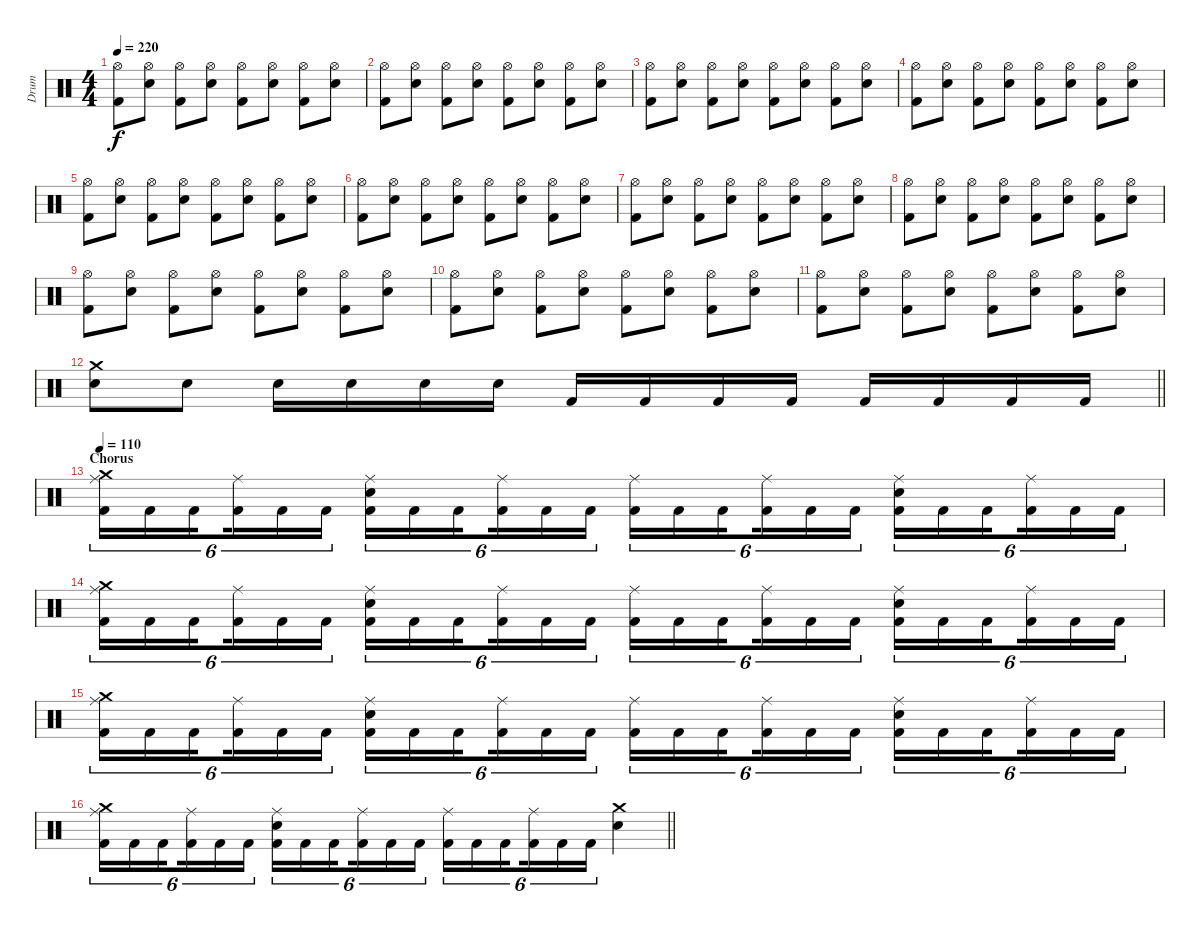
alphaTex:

\track ("Drum" "Drum") {instrument percussion}
\staff {score}
\articulation defaults
\ts (4 4)
\tempo 220
\clef neutral
\ks c
("Hi-Hat (open)" "Kick (hit) 2").8{dy f} ("Hi-Hat (open)" "Electric Snare (hit)").8 ("Hi-Hat (open)" "Kick (hit) 2").8 ("Hi-Hat (open)" "Electric Snare (hit)").8 ("Hi-Hat (open)" "Kick (hit) 2").8 ("Hi-Hat (open)" "Electric Snare (hit)").8 ("Hi-Hat (open)" "Kick (hit) 2").8 ("Hi-Hat (open)" "Electric Snare (hit)").8 |
("Hi-Hat (open)" "Kick (hit) 2").8 ("Hi-Hat (open)" "Electric Snare (hit)").8 ("Hi-Hat (open)" "Kick (hit) 2").8 ("Hi-Hat (open)" "Electric Snare (hit)").8 ("Hi-Hat (open)" "Kick (hit) 2").8 ("Hi-Hat (open)" "Electric Snare (hit)").8 ("Hi-Hat (open)" "Kick (hit) 2").8 ("Hi-Hat (open)" "Electric Snare (hit)").8 |
("Hi-Hat (open)" "Kick (hit) 2").8 ("Hi-Hat (open)" "Electric Snare (hit)").8 ("Hi-Hat (open)" "Kick (hit) 2").8 ("Hi-Hat (open)" "Electric Snare (hit)").8 ("Hi-Hat (open)" "Kick (hit) 2").8 ("Hi-Hat (open)" "Electric Snare (hit)").8 ("Hi-Hat (open)" "Kick (hit) 2").8 ("Hi-Hat (open)" "Electric Snare (hit)").8 |
("Hi-Hat (open)" "Kick (hit) 2").8 ("Hi-Hat (open)" "Electric Snare (hit)").8 ("Hi-Hat (open)" "Kick (hit) 2").8 ("Hi-Hat (open)" "Electric Snare (hit)").8 ("Hi-Hat (open)" "Kick (hit) 2").8 ("Hi-Hat (open)" "Electric Snare (hit)").8 ("Hi-Hat (open)" "Kick (hit) 2").8 ("Hi-Hat (open)" "Electric Snare (hit)").8 |
("Hi-Hat (open)" "Kick (hit) 2").8 ("Hi-Hat (open)" "Electric Snare (hit)").8 ("Hi-Hat (open)" "Kick (hit) 2").8 ("Hi-Hat (open)" "Electric Snare (hit)").8 ("Hi-Hat (open)" "Kick (hit) 2").8 ("Hi-Hat (open)" "Electric Snare (hit)").8 ("Hi-Hat (open)" "Kick (hit) 2").8 ("Hi-Hat (open)" "Electric Snare (hit)").8 |
("Hi-Hat (open)" "Kick (hit) 2").8 ("Hi-Hat (open)" "Electric Snare (hit)").8 ("Hi-Hat (open)" "Kick (hit) 2").8 ("Hi-Hat (open)" "Electric Snare (hit)").8 ("Hi-Hat (open)" "Kick (hit) 2").8 ("Hi-Hat (open)" "Electric Snare (hit)").8 ("Hi-Hat (open)" "Kick (hit) 2").8 ("Hi-Hat (open)" "Electric Snare (hit)").8 |
("Hi-Hat (open)" "Kick (hit) 2").8 ("Hi-Hat (open)" "Electric Snare (hit)").8 ("Hi-Hat (open)" "Kick (hit) 2").8 ("Hi-Hat (open)" "Electric Snare (hit)").8 ("Hi-Hat (open)" "Kick (hit) 2").8 ("Hi-Hat (open)" "Electric Snare (hit)").8 ("Hi-Hat (open)" "Kick (hit) 2").8 ("Hi-Hat (open)" "Electric Snare (hit)").8 |
("Hi-Hat (open)" "Kick (hit) 2").8 ("Hi-Hat (open)" "Electric Snare (hit)").8 ("Hi-Hat (open)" "Kick (hit) 2").8 ("Hi-Hat (open)" "Electric Snare (hit)").8 ("Hi-Hat (open)" "Kick (hit) 2").8 ("Hi-Hat (open)" "Electric Snare (hit)").8 ("Hi-Hat (open)" "Kick (hit) 2").8 ("Hi-Hat (open)" "Electric Snare (hit)").8 |
("Hi-Hat (open)" "Kick (hit) 2").8 ("Hi-Hat (open)" "Electric Snare (hit)").8 ("Hi-Hat (open)" "Kick (hit) 2").8 ("Hi-Hat (open)" "Electric Snare (hit)").8 ("Hi-Hat (open)" "Kick (hit) 2").8 ("Hi-Hat (open)" "Electric Snare (hit)").8 ("Hi-Hat (open)" "Kick (hit) 2").8 ("Hi-Hat (open)" "Electric Snare (hit)").8 |
("Hi-Hat (open)" "Kick (hit) 2").8 ("Hi-Hat (open)" "Electric Snare (hit)").8 ("Hi-Hat (open)" "Kick (hit) 2").8 ("Hi-Hat (open)" "Electric Snare (hit)").8 ("Hi-Hat (open)" "Kick (hit) 2").8 ("Hi-Hat (open)" "Electric Snare (hit)").8 ("Hi-Hat (open)" "Kick (hit) 2").8 ("Hi-Hat (open)" "Electric Snare (hit)").8 |
("Hi-Hat (open)" "Kick (hit) 2").8 ("Hi-Hat (open)" "Electric Snare (hit)").8 ("Hi-Hat (open)" "Kick (hit) 2").8 ("Hi-Hat (open)" "Electric Snare (hit)").8 ("Hi-Hat (open)" "Kick (hit) 2").8 ("Hi-Hat (open)" "Electric Snare (hit)").8 ("Hi-Hat (open)" "Kick (hit) 2").8 ("Hi-Hat (open)" "Electric Snare (hit)").8 |
\barLineRight lightlight
("Crash medium (hit)" "Electric Snare (hit)").8 "Electric Snare (hit)".8 "Electric Snare (hit)".16 "Electric Snare (hit)".16 "Electric Snare (hit)".16 "Electric Snare (hit)".16 "Kick (hit) 2".16 "Kick (hit) 2".16 "Kick (hit) 2".16 "Kick (hit) 2".16 "Kick (hit) 2".16 "Kick (hit) 2".16 "Kick (hit) 2".16 "Kick (hit) 2".16 |
\section ("" "Chorus")
\tempo 110
("Crash medium (hit)" "Ride (middle)" "Kick (hit) 2").16{tu (6 4)} "Kick (hit) 2".16{tu (6 4)} "Kick (hit) 2".16{tu (6 4) beam splitsecondary} ("Ride (middle)" "Kick (hit) 2").16{tu (6 4)} "Kick (hit) 2".16{tu (6 4)} "Kick (hit) 2".16{tu (6 4)} ("Ride (middle)" "Electric Snare (hit)" "Kick (hit) 2").16{tu (6 4)} "Kick (hit) 2".16{tu (6 4)} "Kick (hit) 2".16{tu (6 4) beam splitsecondary} ("Ride (middle)" "Kick (hit) 2").16{tu (6 4)} "Kick (hit) 2".16{tu (6 4)} "Kick (hit) 2".16{tu (6 4)} ("Ride (middle)" "Kick (hit) 2").16{tu (6 4)} "Kick (hit) 2".16{tu (6 4)} "Kick (hit) 2".16{tu (6 4) beam splitsecondary} ("Ride (middle)" "Kick (hit) 2").16{tu (6 4)} "Kick (hit) 2".16{tu (6 4)} "Kick (hit) 2".16{tu (6 4)} ("Ride (middle)" "Electric Snare (hit)" "Kick (hit) 2").16{tu (6 4)} "Kick (hit) 2".16{tu (6 4)} "Kick (hit) 2".16{tu (6 4) beam splitsecondary} ("Ride (middle)" "Kick (hit) 2").16{tu (6 4)} "Kick (hit) 2".16{tu (6 4)} "Kick (hit) 2".16{tu (6 4)} |
("Crash medium (hit)" "Ride (middle)" "Kick (hit) 2").16{tu (6 4)} "Kick (hit) 2".16{tu (6 4)} "Kick (hit) 2".16{tu (6 4) beam splitsecondary} ("Ride (middle)" "Kick (hit) 2").16{tu (6 4)} "Kick (hit) 2".16{tu (6 4)} "Kick (hit) 2".16{tu (6 4)} ("Ride (middle)" "Electric Snare (hit)" "Kick (hit) 2").16{tu (6 4)} "Kick (hit) 2".16{tu (6 4)} "Kick (hit) 2".16{tu (6 4) beam splitsecondary} ("Ride (middle)" "Kick (hit) 2").16{tu (6 4)} "Kick (hit) 2".16{tu (6 4)} "Kick (hit) 2".16{tu (6 4)} ("Ride (middle)" "Kick (hit) 2").16{tu (6 4)} "Kick (hit) 2".16{tu (6 4)} "Kick (hit) 2".16{tu (6 4) beam splitsecondary} ("Ride (middle)" "Kick (hit) 2").16{tu (6 4)} "Kick (hit) 2".16{tu (6 4)} "Kick (hit) 2".16{tu (6 4)} ("Ride (middle)" "Electric Snare (hit)" "Kick (hit) 2").16{tu (6 4)} "Kick (hit) 2".16{tu (6 4)} "Kick (hit) 2".16{tu (6 4) beam splitsecondary} ("Ride (middle)" "Kick (hit) 2").16{tu (6 4)} "Kick (hit) 2".16{tu (6 4)} "Kick (hit) 2".16{tu (6 4)} |
("Crash medium (hit)" "Ride (middle)" "Kick (hit) 2").16{tu (6 4)} "Kick (hit) 2".16{tu (6 4)} "Kick (hit) 2".16{tu (6 4) beam splitsecondary} ("Ride (middle)" "Kick (hit) 2").16{tu (6 4)} "Kick (hit) 2".16{tu (6 4)} "Kick (hit) 2".16{tu (6 4)} ("Ride (middle)" "Electric Snare (hit)" "Kick (hit) 2").16{tu (6 4)} "Kick (hit) 2".16{tu (6 4)} "Kick (hit) 2".16{tu (6 4) beam splitsecondary} ("Ride (middle)" "Kick (hit) 2").16{tu (6 4)} "Kick (hit) 2".16{tu (6 4)} "Kick (hit) 2".16{tu (6 4)} ("Ride (middle)" "Kick (hit) 2").16{tu (6 4)} "Kick (hit) 2".16{tu (6 4)} "Kick (hit) 2".16{tu (6 4) beam splitsecondary} ("Ride (middle)" "Kick (hit) 2").16{tu (6 4)} "Kick (hit) 2".16{tu (6 4)} "Kick (hit) 2".16{tu (6 4)} ("Ride (middle)" "Electric Snare (hit)" "Kick (hit) 2").16{tu (6 4)} "Kick (hit) 2".16{tu (6 4)} "Kick (hit) 2".16{tu (6 4) beam splitsecondary} ("Ride (middle)" "Kick (hit) 2").16{tu (6 4)} "Kick (hit) 2".16{tu (6 4)} "Kick (hit) 2".16{tu (6 4)} |
\barLineRight lightlight
("Crash medium (hit)" "Ride (middle)" "Kick (hit) 2").16{tu (6 4)} "Kick (hit) 2".16{tu (6 4)} "Kick (hit) 2".16{tu (6 4) beam splitsecondary} ("Ride (middle)" "Kick (hit) 2").16{tu (6 4)} "Kick (hit) 2".16{tu (6 4)} "Kick (hit) 2".16{tu (6 4)} ("Ride (middle)" "Electric Snare (hit)" "Kick (hit) 2").16{tu (6 4)} "Kick (hit) 2".16{tu (6 4)} "Kick (hit) 2".16{tu (6 4) beam splitsecondary} ("Ride (middle)" "Kick (hit) 2").16{tu (6 4)} "Kick (hit) 2".16{tu (6 4)} "Kick (hit) 2".16{tu (6 4)} ("Ride (middle)" "Kick (hit) 2").16{tu (6 4)} "Kick (hit) 2".16{tu (6 4)} "Kick (hit) 2".16{tu (6 4) beam splitsecondary} ("Ride (middle)" "Kick (hit) 2").16{tu (6 4)} "Kick (hit) 2".16{tu (6 4)} "Kick (hit) 2".16{tu (6 4)} ("Crash medium (hit)" "Electric Snare (hit)").4
